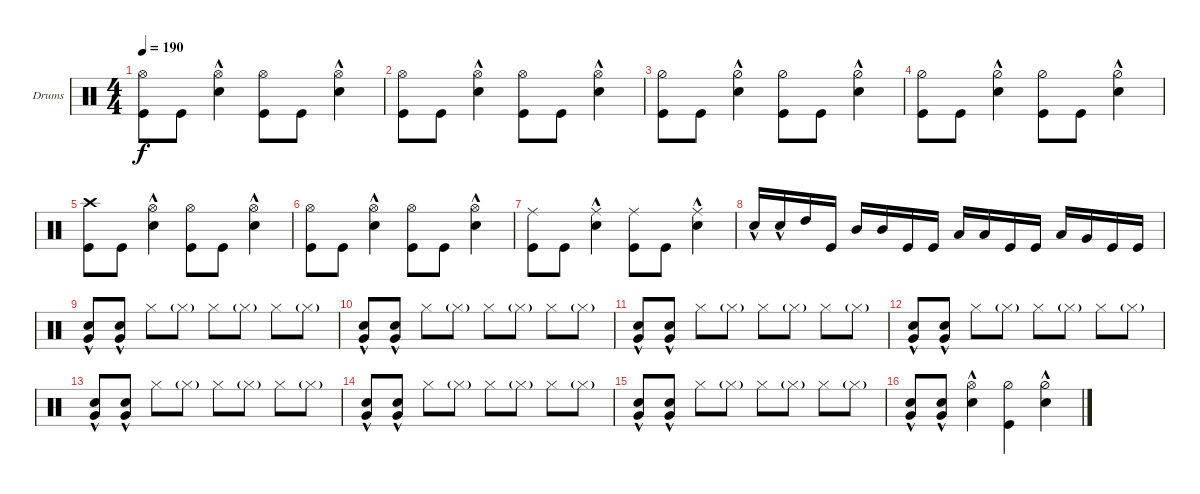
\bracketExtendMode groupsimilarinstruments
\firstSystemTrackNameOrientation horizontal
\otherSystemsTrackNameOrientation horizontal
\track ("Drumkit" "Drums") {instrument percussion}
\staff {score}
\articulation defaults
\ts (4 4)
\tempo 190
\clef neutral
\scale
0.333333
\ks c
("Kick (hit)" "Hi-Hat (open)").8{dy f} "Kick (hit)".8 ("Snare (hit) 2"{hac} "Hi-Hat (open)").4 ("Kick (hit)" "Hi-Hat (open)").8 "Kick (hit)".8 ("Snare (hit) 2"{hac} "Hi-Hat (open)").4 |
\scale
0.333333 ("Kick (hit)" "Hi-Hat (open)").8 "Kick (hit)".8 ("Snare (hit) 2"{hac} "Hi-Hat (open)").4 ("Kick (hit)" "Hi-Hat (open)").8 "Kick (hit)".8 ("Snare (hit) 2"{hac} "Hi-Hat (open)").4 |
\scale
0.333333 ("Kick (hit)" "Hi-Hat (half)").8 "Kick (hit)".8 ("Snare (hit) 2"{hac} "Hi-Hat (half)").4 ("Kick (hit)" "Hi-Hat (half)").8 "Kick (hit)".8 ("Snare (hit) 2"{hac} "Hi-Hat (half)").4 |
\scale
0.333333 ("Kick (hit)" "Hi-Hat (half)").8 "Kick (hit)".8 ("Snare (hit) 2"{hac} "Hi-Hat (half)").4 ("Kick (hit)" "Hi-Hat (half)").8 "Kick (hit)".8 ("Snare (hit) 2"{hac} "Hi-Hat (half)").4 |
\scale
0.333333 ("Kick (hit)" "Crash high (hit)").8 "Kick (hit)".8 ("Snare (hit) 2"{hac} "Hi-Hat (open)").4 ("Kick (hit)" "Hi-Hat (open)").8 "Kick (hit)".8 ("Snare (hit) 2"{hac} "Hi-Hat (open)").4 |
\scale
0.333333 ("Kick (hit)" "Hi-Hat (open)").8 "Kick (hit)".8 ("Snare (hit) 2"{hac} "Hi-Hat (open)").4 ("Kick (hit)" "Hi-Hat (open)").8 "Kick (hit)".8 ("Snare (hit) 2"{hac} "Hi-Hat (open)").4 |
\scale
0.333333 ("Kick (hit)" "Ride (middle)").8 "Kick (hit)".8 ("Snare (hit) 2"{hac} "Ride (middle)").4 ("Kick (hit)" "Ride (middle)").8 "Kick (hit)".8 ("Snare (hit) 2"{hac} "Ride (middle)").4 |
\scale
0.333333 "Snare (hit) 2"{hac}.16 "Snare (hit) 2"{hac}.16 "High Tom (hit)".16 "Kick (hit)".16 "Mid Tom (hit)".16 "Mid Tom (hit)".16 "Kick (hit)".16 "Kick (hit)".16 "Low Tom (hit)".16 "Low Tom (hit)".16 "Kick (hit)".16 "Kick (hit)".16 "Low Tom (hit)".16 "Very Low Tom (hit)".16 "Kick (hit)".16 "Kick (hit)".16 |
\scale
0.333333 ("Snare (hit) 2"{hac} "Very Low Tom (hit)").8 ("Snare (hit) 2"{hac} "Very Low Tom (hit)").8 "Hi-Hat (closed)".8 "Hi-Hat (closed)"{g}.8 "Hi-Hat (closed)".8 "Hi-Hat (closed)"{g}.8 "Hi-Hat (closed)".8 "Hi-Hat (closed)"{g}.8 |
\scale
0.333333 ("Snare (hit) 2"{hac} "Very Low Tom (hit)").8 ("Snare (hit) 2"{hac} "Very Low Tom (hit)").8 "Hi-Hat (closed)".8 "Hi-Hat (closed)"{g}.8 "Hi-Hat (closed)".8 "Hi-Hat (closed)"{g}.8 "Hi-Hat (closed)".8 "Hi-Hat (closed)"{g}.8 |
\scale
0.333333 ("Snare (hit) 2"{hac} "Very Low Tom (hit)").8 ("Snare (hit) 2"{hac} "Very Low Tom (hit)").8 "Hi-Hat (closed)".8 "Hi-Hat (closed)"{g}.8 "Hi-Hat (closed)".8 "Hi-Hat (closed)"{g}.8 "Hi-Hat (closed)".8 "Hi-Hat (closed)"{g}.8 |
\scale
0.333333 ("Snare (hit) 2"{hac} "Very Low Tom (hit)").8 ("Snare (hit) 2"{hac} "Very Low Tom (hit)").8 "Hi-Hat (closed)".8 "Hi-Hat (closed)"{g}.8 "Hi-Hat (closed)".8 "Hi-Hat (closed)"{g}.8 "Hi-Hat (closed)".8 "Hi-Hat (closed)"{g}.8 |
\scale
0.333333 ("Snare (hit) 2"{hac} "Very Low Tom (hit)").8 ("Snare (hit) 2"{hac} "Very Low Tom (hit)").8 "Hi-Hat (closed)".8 "Hi-Hat (closed)"{g}.8 "Hi-Hat (closed)".8 "Hi-Hat (closed)"{g}.8 "Hi-Hat (closed)".8 "Hi-Hat (closed)"{g}.8 |
\scale
0.333333 ("Snare (hit) 2"{hac} "Very Low Tom (hit)").8 ("Snare (hit) 2"{hac} "Very Low Tom (hit)").8 "Hi-Hat (closed)".8 "Hi-Hat (closed)"{g}.8 "Hi-Hat (closed)".8 "Hi-Hat (closed)"{g}.8 "Hi-Hat (closed)".8 "Hi-Hat (closed)"{g}.8 |
\scale
0.333333 ("Snare (hit) 2"{hac} "Very Low Tom (hit)").8 ("Snare (hit) 2"{hac} "Very Low Tom (hit)").8 "Hi-Hat (closed)".8 "Hi-Hat (closed)"{g}.8 "Hi-Hat (closed)".8 "Hi-Hat (closed)"{g}.8 "Hi-Hat (closed)".8 "Hi-Hat (closed)"{g}.8 |
\scale
0.333333 ("Snare (hit) 2"{hac} "Very Low Tom (hit)").8 ("Snare (hit) 2"{hac} "Very Low Tom (hit)").8 ("Hi-Hat (open)" "Snare (hit) 2"{hac}).4 ("Hi-Hat (half)" "Kick (hit)").4 ("Hi-Hat (half)" "Snare (hit) 2"{hac}).4
